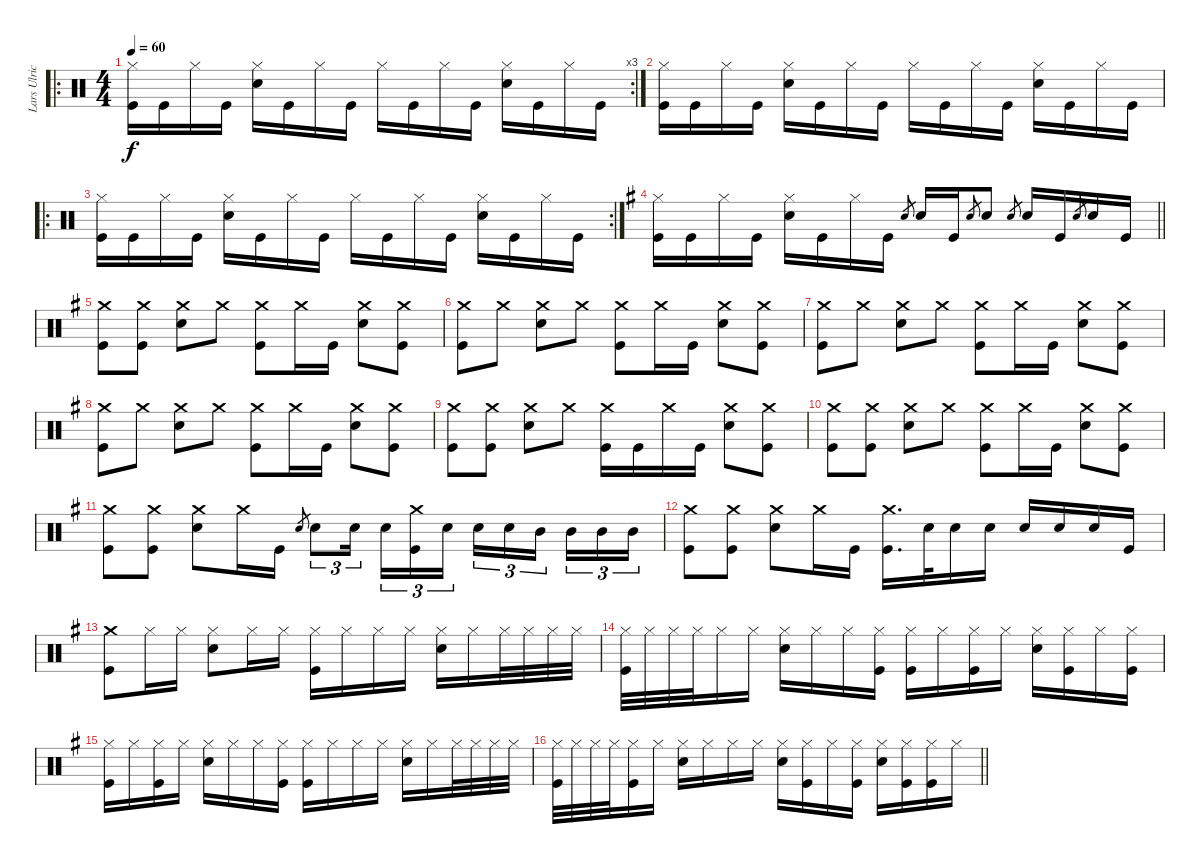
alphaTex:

\track ("Lars Ulrich [Drums]" "Lars Ulric") {instrument percussion}
\staff {score}
\articulation defaults
\ro
\rc 3
\ts (4 4)
\tempo 60
\clef neutral
\ks c
("Kick (hit)" "Hi-Hat (closed)").16{dy f} "Kick (hit)".16 "Hi-Hat (closed)".16 "Kick (hit)".16 ("Electric Snare (hit)" "Hi-Hat (closed)").16 "Kick (hit)".16 "Hi-Hat (closed)".16 "Kick (hit)".16 "Hi-Hat (closed)".16 "Kick (hit)".16 "Hi-Hat (closed)".16 "Kick (hit)".16 ("Electric Snare (hit)" "Hi-Hat (closed)").16 "Kick (hit)".16 "Hi-Hat (closed)".16 "Kick (hit)".16 |
("Kick (hit)" "Hi-Hat (closed)").16 "Kick (hit)".16 "Hi-Hat (closed)".16 "Kick (hit)".16 ("Electric Snare (hit)" "Hi-Hat (closed)").16 "Kick (hit)".16 "Hi-Hat (closed)".16 "Kick (hit)".16 "Hi-Hat (closed)".16 "Kick (hit)".16 "Hi-Hat (closed)".16 "Kick (hit)".16 ("Electric Snare (hit)" "Hi-Hat (closed)").16 "Kick (hit)".16 "Hi-Hat (closed)".16 "Kick (hit)".16 |
\ro
\rc 2
("Kick (hit)" "Hi-Hat (closed)").16 "Kick (hit)".16 "Hi-Hat (closed)".16 "Kick (hit)".16 ("Electric Snare (hit)" "Hi-Hat (closed)").16 "Kick (hit)".16 "Hi-Hat (closed)".16 "Kick (hit)".16 "Hi-Hat (closed)".16 "Kick (hit)".16 "Hi-Hat (closed)".16 "Kick (hit)".16 ("Electric Snare (hit)" "Hi-Hat (closed)").16 "Kick (hit)".16 "Hi-Hat (closed)".16 "Kick (hit)".16 |
\barLineRight lightlight
\ks g
("Kick (hit)" "Hi-Hat (closed)").16 "Kick (hit)".16 "Hi-Hat (closed)".16 "Kick (hit)".16 ("Electric Snare (hit)" "Hi-Hat (closed)").16 "Kick (hit)".16 "Hi-Hat (closed)".16 "Kick (hit)".16 "Electric Snare (hit)".8{gr} "Electric Snare (hit)".16 "Kick (hit)".16 "Electric Snare (hit)".8{gr} "Electric Snare (hit)".8 "Electric Snare (hit)".8{gr} "Electric Snare (hit)".16 "Kick (hit)".16 "Electric Snare (hit)".8{gr} "Electric Snare (hit)".16 "Kick (hit)".16 |
("Kick (hit)" "Crash medium (hit)").8 ("Kick (hit)" "Crash medium (hit)").8 ("Electric Snare (hit)" "Crash medium (hit)").8 "Crash medium (hit)".8 ("Kick (hit)" "Crash medium (hit)").8 "Crash medium (hit)".16 "Kick (hit)".16 ("Electric Snare (hit)" "Crash medium (hit)").8 ("Kick (hit)" "Crash medium (hit)").8 |
("Kick (hit)" "Crash medium (hit)").8 "Crash medium (hit)".8 ("Electric Snare (hit)" "Crash medium (hit)").8 "Crash medium (hit)".8 ("Kick (hit)" "Crash medium (hit)").8 "Crash medium (hit)".16 "Kick (hit)".16 ("Electric Snare (hit)" "Crash medium (hit)").8 ("Kick (hit)" "Crash medium (hit)").8 |
("Kick (hit)" "Crash medium (hit)").8 "Crash medium (hit)".8 ("Electric Snare (hit)" "Crash medium (hit)").8 "Crash medium (hit)".8 ("Kick (hit)" "Crash medium (hit)").8 "Crash medium (hit)".16 "Kick (hit)".16 ("Electric Snare (hit)" "Crash medium (hit)").8 ("Kick (hit)" "Crash medium (hit)").8 |
("Kick (hit)" "Crash medium (hit)").8 "Crash medium (hit)".8 ("Electric Snare (hit)" "Crash medium (hit)").8 "Crash medium (hit)".8 ("Kick (hit)" "Crash medium (hit)").8 "Crash medium (hit)".16 "Kick (hit)".16 ("Electric Snare (hit)" "Crash medium (hit)").8 ("Kick (hit)" "Crash medium (hit)").8 |
("Kick (hit)" "Crash medium (hit)").8 ("Kick (hit)" "Crash medium (hit)").8 ("Electric Snare (hit)" "Crash medium (hit)").8 "Crash medium (hit)".8 ("Kick (hit)" "Crash medium (hit)").16 "Kick (hit)".16 "Crash medium (hit)".16 "Kick (hit)".16 ("Electric Snare (hit)" "Crash medium (hit)").8 ("Kick (hit)" "Crash medium (hit)").8 |
("Kick (hit)" "Crash medium (hit)").8 ("Kick (hit)" "Crash medium (hit)").8 ("Electric Snare (hit)" "Crash medium (hit)").8 "Crash medium (hit)".8 ("Kick (hit)" "Crash medium (hit)").8 "Crash medium (hit)".16 "Kick (hit)".16 ("Electric Snare (hit)" "Crash medium (hit)").8 ("Kick (hit)" "Crash medium (hit)").8 |
("Kick (hit)" "Crash medium (hit)").8 ("Kick (hit)" "Crash medium (hit)").8 ("Electric Snare (hit)" "Crash medium (hit)").8 "Crash medium (hit)".16 "Kick (hit)".16 "Electric Snare (hit)".8{gr} "Electric Snare (hit)".8{tu (3 2)} "Electric Snare (hit)".16{tu (3 2) beam splitsecondary} "Electric Snare (hit)".16{tu (3 2)} ("Kick (hit)" "Crash medium (hit)").16{tu (3 2)} "Electric Snare (hit)".16{tu (3 2)} "Electric Snare (hit)".16{tu (3 2)} "Electric Snare (hit)".16{tu (3 2)} "Mid Tom (hit)".16{tu (3 2) beam splitsecondary} "Mid Tom (hit)".16{tu (3 2)} "Mid Tom (hit)".16{tu (3 2)} "Mid Tom (hit)".16{tu (3 2)} |
("Kick (hit)" "Crash medium (hit)").8 ("Kick (hit)" "Crash medium (hit)").8 ("Electric Snare (hit)" "Crash medium (hit)").8 "Crash medium (hit)".16 "Kick (hit)".16 ("Kick (hit)" "Crash medium (hit)").16{d} "Electric Snare (hit)".32 "Electric Snare (hit)".16 "Electric Snare (hit)".16 "Electric Snare (hit)".16 "Electric Snare (hit)".16 "Electric Snare (hit)".16 "Kick (hit)".16 |
("Kick (hit)" "Crash medium (hit)").8 "Hi-Hat (closed)".16 "Hi-Hat (closed)".16 ("Electric Snare (hit)" "Hi-Hat (closed)").8 "Hi-Hat (closed)".16 "Hi-Hat (closed)".16 ("Kick (hit)" "Hi-Hat (closed)").16 "Hi-Hat (closed)".16 "Hi-Hat (closed)".16 "Hi-Hat (closed)".16 ("Electric Snare (hit)" "Hi-Hat (closed)").16 "Hi-Hat (closed)".16 "Hi-Hat (closed)".32 "Hi-Hat (closed)".32 "Hi-Hat (closed)".32 "Hi-Hat (closed)".32 |
("Kick (hit)" "Hi-Hat (closed)").32 "Hi-Hat (closed)".32 "Hi-Hat (closed)".32 "Hi-Hat (closed)".32 "Hi-Hat (closed)".16 "Hi-Hat (closed)".16 ("Electric Snare (hit)" "Hi-Hat (closed)").16 "Hi-Hat (closed)".16 "Hi-Hat (closed)".16 ("Kick (hit)" "Hi-Hat (closed)").16 ("Kick (hit)" "Hi-Hat (closed)").16 "Hi-Hat (closed)".16 ("Kick (hit)" "Hi-Hat (closed)").16 "Hi-Hat (closed)".16 ("Electric Snare (hit)" "Hi-Hat (closed)").16 ("Kick (hit)" "Hi-Hat (closed)").16 "Hi-Hat (closed)".16 ("Kick (hit)" "Hi-Hat (closed)").16 |
("Kick (hit)" "Hi-Hat (closed)").16 "Hi-Hat (closed)".16 ("Kick (hit)" "Hi-Hat (closed)").16 "Hi-Hat (closed)".16 ("Electric Snare (hit)" "Hi-Hat (closed)").16 "Hi-Hat (closed)".16 "Hi-Hat (closed)".16 ("Kick (hit)" "Hi-Hat (closed)").16 ("Kick (hit)" "Hi-Hat (closed)").16 "Hi-Hat (closed)".16 "Hi-Hat (closed)".16 "Hi-Hat (closed)".16 ("Electric Snare (hit)" "Hi-Hat (closed)").16 "Hi-Hat (closed)".16 "Hi-Hat (closed)".32 "Hi-Hat (closed)".32 "Hi-Hat (closed)".32 "Hi-Hat (closed)".32 |
\barLineRight lightlight
("Kick (hit)" "Hi-Hat (closed)").32 "Hi-Hat (closed)".32 "Hi-Hat (closed)".32 "Hi-Hat (closed)".32 ("Kick (hit)" "Hi-Hat (closed)").16 "Hi-Hat (closed)".16 ("Electric Snare (hit)" "Hi-Hat (closed)").16 "Hi-Hat (closed)".16 "Hi-Hat (closed)".16 "Hi-Hat (closed)".16 ("Electric Snare (hit)" "Hi-Hat (closed)").16 ("Kick (hit)" "Hi-Hat (closed)").16 "Hi-Hat (closed)".16 ("Kick (hit)" "Hi-Hat (closed)").16 ("Electric Snare (hit)" "Hi-Hat (closed)").16 ("Kick (hit)" "Hi-Hat (closed)").16 ("Kick (hit)" "Hi-Hat (closed)").16 "Hi-Hat (closed)".16
